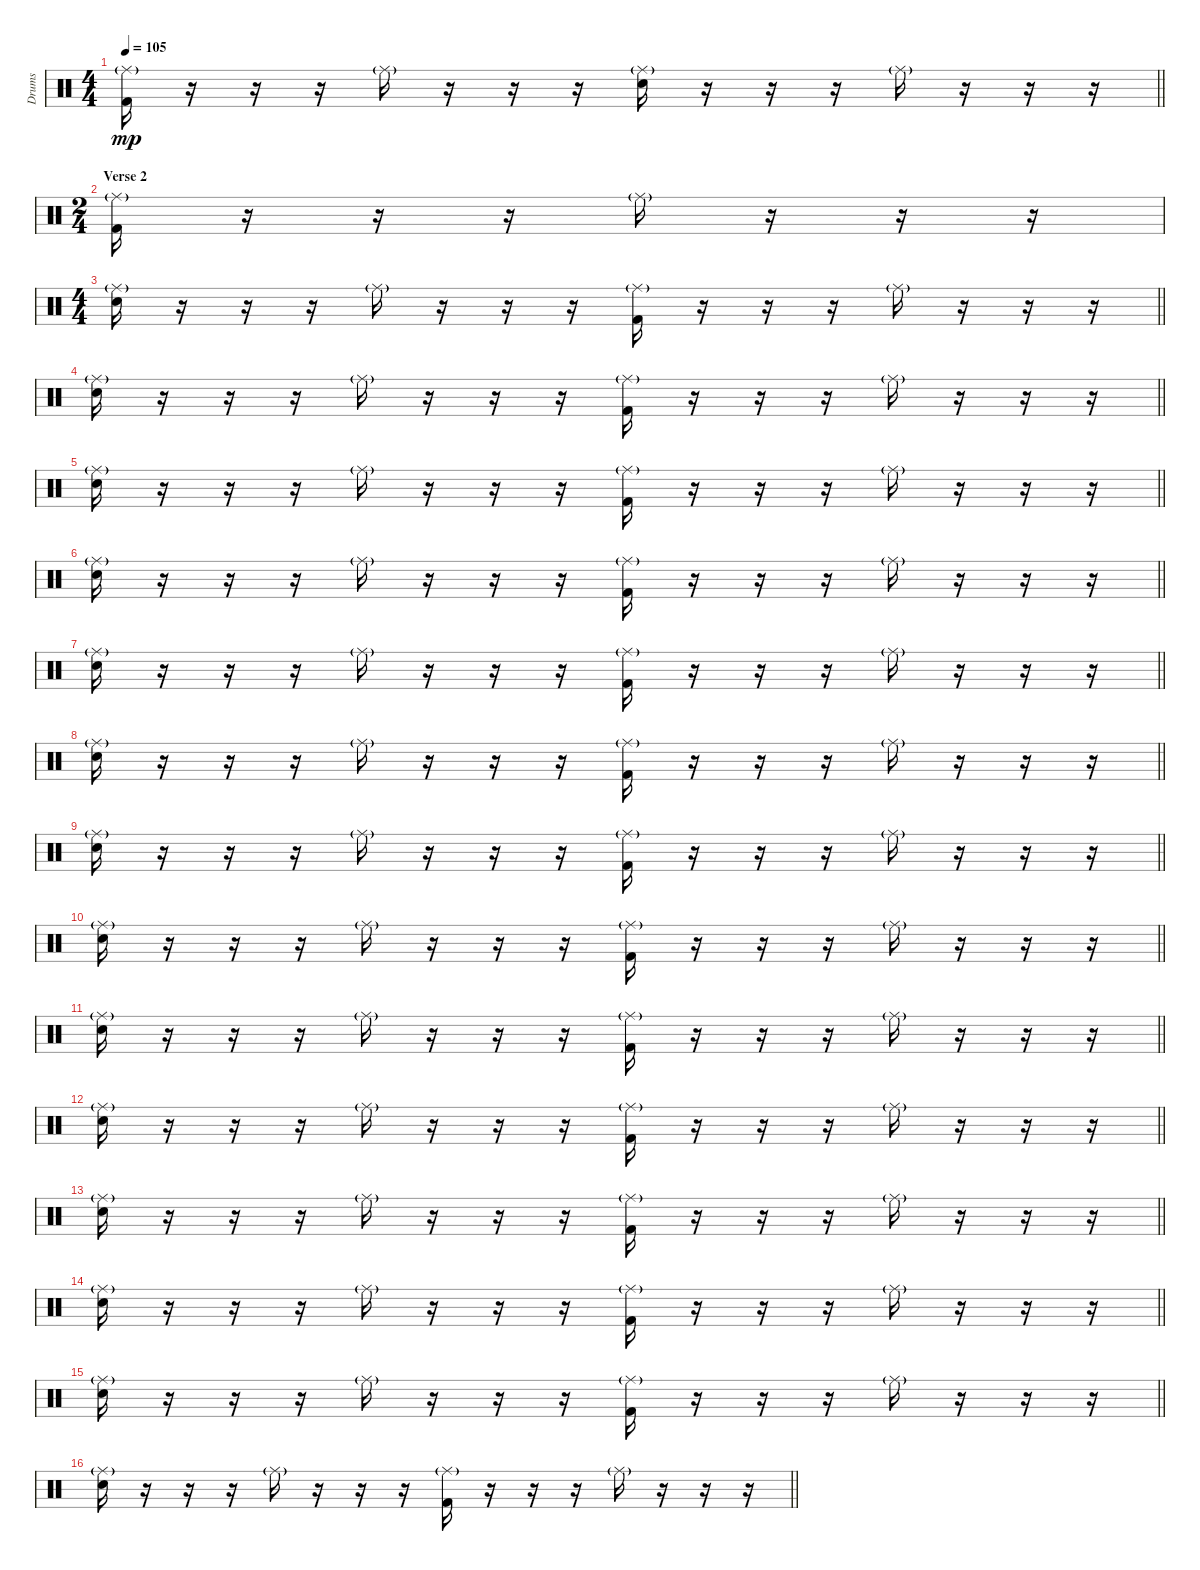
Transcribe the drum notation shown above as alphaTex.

\track ("Drums" "Drums") {instrument percussion}
\staff {score}
\articulation defaults
\ts (4 4)
\tempo 105
\clef neutral
\barLineRight lightlight
\ks c
("Ride (middle)"{g} "Kick (hit) 2").16{dy mp} r.16 r.16 r.16 "Ride (middle)"{g}.16 r.16 r.16 r.16 ("Ride (middle)"{g} "Electric Snare (hit)").16 r.16 r.16 r.16 "Ride (middle)"{g}.16 r.16 r.16 r.16 |
\ts (2 4)
\section ("" "Verse 2")
("Ride (middle)"{g} "Kick (hit) 2").16 r.16 r.16 r.16 "Ride (middle)"{g}.16 r.16 r.16 r.16 |
\ts (4 4)
\barLineRight lightlight
("Ride (middle)"{g} "Electric Snare (hit)").16 r.16 r.16 r.16 "Ride (middle)"{g}.16 r.16 r.16 r.16 ("Ride (middle)"{g} "Kick (hit) 2").16 r.16 r.16 r.16 "Ride (middle)"{g}.16 r.16 r.16 r.16 |
\barLineRight lightlight
("Ride (middle)"{g} "Electric Snare (hit)").16 r.16 r.16 r.16 "Ride (middle)"{g}.16 r.16 r.16 r.16 ("Ride (middle)"{g} "Kick (hit) 2").16 r.16 r.16 r.16 "Ride (middle)"{g}.16 r.16 r.16 r.16 |
\barLineRight lightlight
("Ride (middle)"{g} "Electric Snare (hit)").16 r.16 r.16 r.16 "Ride (middle)"{g}.16 r.16 r.16 r.16 ("Ride (middle)"{g} "Kick (hit) 2").16 r.16 r.16 r.16 "Ride (middle)"{g}.16 r.16 r.16 r.16 |
\barLineRight lightlight
("Ride (middle)"{g} "Electric Snare (hit)").16 r.16 r.16 r.16 "Ride (middle)"{g}.16 r.16 r.16 r.16 ("Ride (middle)"{g} "Kick (hit) 2").16 r.16 r.16 r.16 "Ride (middle)"{g}.16 r.16 r.16 r.16 |
\barLineRight lightlight
("Ride (middle)"{g} "Electric Snare (hit)").16 r.16 r.16 r.16 "Ride (middle)"{g}.16 r.16 r.16 r.16 ("Ride (middle)"{g} "Kick (hit) 2").16 r.16 r.16 r.16 "Ride (middle)"{g}.16 r.16 r.16 r.16 |
\barLineRight lightlight
("Ride (middle)"{g} "Electric Snare (hit)").16 r.16 r.16 r.16 "Ride (middle)"{g}.16 r.16 r.16 r.16 ("Ride (middle)"{g} "Kick (hit) 2").16 r.16 r.16 r.16 "Ride (middle)"{g}.16 r.16 r.16 r.16 |
\barLineRight lightlight
("Ride (middle)"{g} "Electric Snare (hit)").16 r.16 r.16 r.16 "Ride (middle)"{g}.16 r.16 r.16 r.16 ("Ride (middle)"{g} "Kick (hit) 2").16 r.16 r.16 r.16 "Ride (middle)"{g}.16 r.16 r.16 r.16 |
\barLineRight lightlight
("Ride (middle)"{g} "Electric Snare (hit)").16 r.16 r.16 r.16 "Ride (middle)"{g}.16 r.16 r.16 r.16 ("Ride (middle)"{g} "Kick (hit) 2").16 r.16 r.16 r.16 "Ride (middle)"{g}.16 r.16 r.16 r.16 |
\barLineRight lightlight
("Ride (middle)"{g} "Electric Snare (hit)").16 r.16 r.16 r.16 "Ride (middle)"{g}.16 r.16 r.16 r.16 ("Ride (middle)"{g} "Kick (hit) 2").16 r.16 r.16 r.16 "Ride (middle)"{g}.16 r.16 r.16 r.16 |
\barLineRight lightlight
("Ride (middle)"{g} "Electric Snare (hit)").16 r.16 r.16 r.16 "Ride (middle)"{g}.16 r.16 r.16 r.16 ("Ride (middle)"{g} "Kick (hit) 2").16 r.16 r.16 r.16 "Ride (middle)"{g}.16 r.16 r.16 r.16 |
\barLineRight lightlight
("Ride (middle)"{g} "Electric Snare (hit)").16 r.16 r.16 r.16 "Ride (middle)"{g}.16 r.16 r.16 r.16 ("Ride (middle)"{g} "Kick (hit) 2").16 r.16 r.16 r.16 "Ride (middle)"{g}.16 r.16 r.16 r.16 |
\barLineRight lightlight
("Ride (middle)"{g} "Electric Snare (hit)").16 r.16 r.16 r.16 "Ride (middle)"{g}.16 r.16 r.16 r.16 ("Ride (middle)"{g} "Kick (hit) 2").16 r.16 r.16 r.16 "Ride (middle)"{g}.16 r.16 r.16 r.16 |
\barLineRight lightlight
("Ride (middle)"{g} "Electric Snare (hit)").16 r.16 r.16 r.16 "Ride (middle)"{g}.16 r.16 r.16 r.16 ("Ride (middle)"{g} "Kick (hit) 2").16 r.16 r.16 r.16 "Ride (middle)"{g}.16 r.16 r.16 r.16 |
\barLineRight lightlight
("Ride (middle)"{g} "Electric Snare (hit)").16 r.16 r.16 r.16 "Ride (middle)"{g}.16 r.16 r.16 r.16 ("Ride (middle)"{g} "Kick (hit) 2").16 r.16 r.16 r.16 "Ride (middle)"{g}.16 r.16 r.16 r.16
